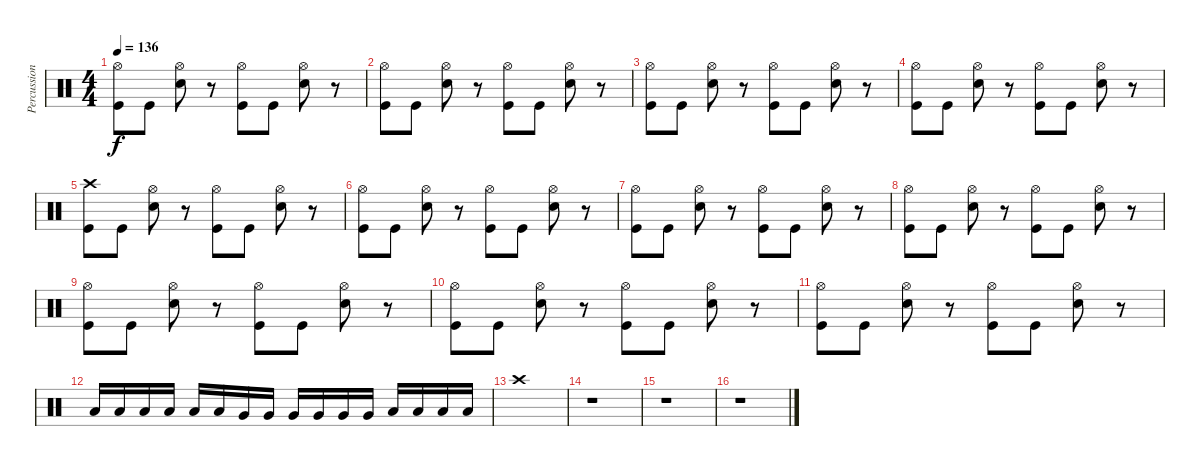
\track ("Percussion" "Percussion") {instrument percussion}
\staff {score}
\articulation defaults
\ts (4 4)
\tempo 136
\clef neutral
\ks c
("Hi-Hat (open)" "Kick (hit)").8{dy f} "Kick (hit)".8 ("Hi-Hat (open)" "Snare (hit) 2").8 r.8 ("Hi-Hat (open)" "Kick (hit)").8 "Kick (hit)".8 ("Hi-Hat (open)" "Snare (hit) 2").8 r.8 |
("Hi-Hat (open)" "Kick (hit)").8 "Kick (hit)".8 ("Hi-Hat (open)" "Snare (hit) 2").8 r.8 ("Hi-Hat (open)" "Kick (hit)").8 "Kick (hit)".8 ("Hi-Hat (open)" "Snare (hit) 2").8 r.8 |
("Hi-Hat (open)" "Kick (hit)").8 "Kick (hit)".8 ("Hi-Hat (open)" "Snare (hit) 2").8 r.8 ("Hi-Hat (open)" "Kick (hit)").8 "Kick (hit)".8 ("Hi-Hat (open)" "Snare (hit) 2").8 r.8 |
("Hi-Hat (open)" "Kick (hit)").8 "Kick (hit)".8 ("Hi-Hat (open)" "Snare (hit) 2").8 r.8 ("Hi-Hat (open)" "Kick (hit)").8 "Kick (hit)".8 ("Hi-Hat (open)" "Snare (hit) 2").8 r.8 |
("Crash high (hit)" "Kick (hit)").8 "Kick (hit)".8 ("Hi-Hat (open)" "Snare (hit) 2").8 r.8 ("Hi-Hat (open)" "Kick (hit)").8 "Kick (hit)".8 ("Hi-Hat (open)" "Snare (hit) 2").8 r.8 |
("Hi-Hat (open)" "Kick (hit)").8 "Kick (hit)".8 ("Hi-Hat (open)" "Snare (hit) 2").8 r.8 ("Hi-Hat (open)" "Kick (hit)").8 "Kick (hit)".8 ("Hi-Hat (open)" "Snare (hit) 2").8 r.8 |
("Hi-Hat (open)" "Kick (hit)").8 "Kick (hit)".8 ("Hi-Hat (open)" "Snare (hit) 2").8 r.8 ("Hi-Hat (open)" "Kick (hit)").8 "Kick (hit)".8 ("Hi-Hat (open)" "Snare (hit) 2").8 r.8 |
("Hi-Hat (open)" "Kick (hit)").8 "Kick (hit)".8 ("Hi-Hat (open)" "Snare (hit) 2").8 r.8 ("Hi-Hat (open)" "Kick (hit)").8 "Kick (hit)".8 ("Hi-Hat (open)" "Snare (hit) 2").8 r.8 |
("Hi-Hat (open)" "Kick (hit)").8 "Kick (hit)".8 ("Hi-Hat (open)" "Snare (hit) 2").8 r.8 ("Hi-Hat (open)" "Kick (hit)").8 "Kick (hit)".8 ("Hi-Hat (open)" "Snare (hit) 2").8 r.8 |
("Hi-Hat (open)" "Kick (hit)").8 "Kick (hit)".8 ("Hi-Hat (open)" "Snare (hit) 2").8 r.8 ("Hi-Hat (open)" "Kick (hit)").8 "Kick (hit)".8 ("Hi-Hat (open)" "Snare (hit) 2").8 r.8 |
("Hi-Hat (open)" "Kick (hit)").8 "Kick (hit)".8 ("Hi-Hat (open)" "Snare (hit) 2").8 r.8 ("Hi-Hat (open)" "Kick (hit)").8 "Kick (hit)".8 ("Hi-Hat (open)" "Snare (hit) 2").8 r.8 |
"Low Tom (hit)".16 "Low Tom (hit)".16 "Low Tom (hit)".16 "Low Tom (hit)".16 "Low Tom (hit)".16 "Low Tom (hit)".16 "Very Low Tom (hit)".16 "Very Low Tom (hit)".16 "Very Low Tom (hit)".16 "Very Low Tom (hit)".16 "Very Low Tom (hit)".16 "Very Low Tom (hit)".16 "Low Floor Tom (hit)".16 "Low Floor Tom (hit)".16 "Low Floor Tom (hit)".16 "Low Floor Tom (hit)".16 |
"Crash high (hit)".1 |
r.1 |
r.1 |
r.1
